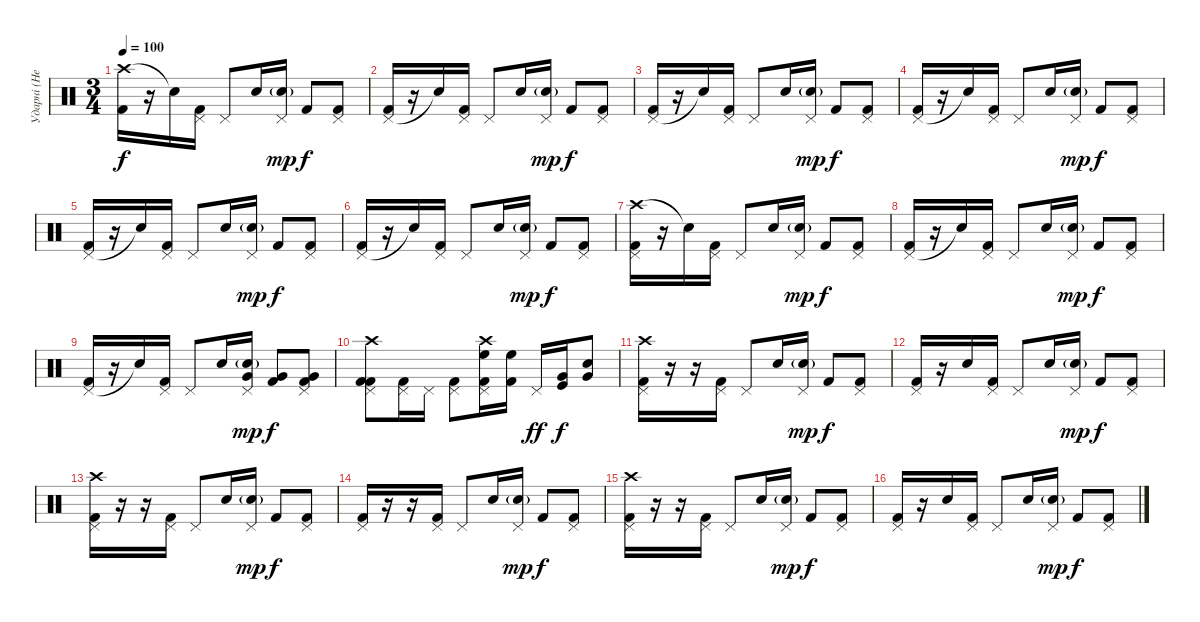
\track ("Ударні (Недашковський)" "Ударні (Не") {instrument percussion}
\staff {score}
\articulation defaults
\ts (3 4)
\tempo 100
\clef neutral
\ks c
("Crash high (hit)" "Kick (hit) 2").16{dy f} r.16 "Snare (hit)"{t}.16 ("Pedal Hi-Hat (hit)" "Kick (hit) 2").16 "Pedal Hi-Hat (hit)".8 "Snare (hit) 2".16 ("Pedal Hi-Hat (hit)" "Electric Snare (hit)"{g}).16{dy mp} "Kick (hit) 2".8{dy f} ("Pedal Hi-Hat (hit)" "Kick (hit) 2").8 |
("Pedal Hi-Hat (hit)" "Kick (hit) 2").16 r.16 "Snare (hit)"{t}.16 ("Pedal Hi-Hat (hit)" "Kick (hit) 2").16 "Pedal Hi-Hat (hit)".8 "Snare (hit) 2".16 ("Pedal Hi-Hat (hit)" "Electric Snare (hit)"{g}).16{dy mp} "Kick (hit) 2".8{dy f} ("Pedal Hi-Hat (hit)" "Kick (hit) 2").8 |
("Pedal Hi-Hat (hit)" "Kick (hit) 2").16 r.16 "Snare (hit)"{t}.16 ("Pedal Hi-Hat (hit)" "Kick (hit) 2").16 "Pedal Hi-Hat (hit)".8 "Snare (hit) 2".16 ("Pedal Hi-Hat (hit)" "Electric Snare (hit)"{g}).16{dy mp} "Kick (hit) 2".8{dy f} ("Pedal Hi-Hat (hit)" "Kick (hit) 2").8 |
("Pedal Hi-Hat (hit)" "Kick (hit) 2").16 r.16 "Snare (hit)"{t}.16 ("Pedal Hi-Hat (hit)" "Kick (hit) 2").16 "Pedal Hi-Hat (hit)".8 "Snare (hit) 2".16 ("Pedal Hi-Hat (hit)" "Electric Snare (hit)"{g}).16{dy mp} "Kick (hit) 2".8{dy f} ("Pedal Hi-Hat (hit)" "Kick (hit) 2").8 |
("Pedal Hi-Hat (hit)" "Kick (hit) 2").16 r.16 "Snare (hit)"{t}.16 ("Pedal Hi-Hat (hit)" "Kick (hit) 2").16 "Pedal Hi-Hat (hit)".8 "Snare (hit) 2".16 ("Pedal Hi-Hat (hit)" "Electric Snare (hit)"{g}).16{dy mp} "Kick (hit) 2".8{dy f} ("Pedal Hi-Hat (hit)" "Kick (hit) 2").8 |
("Pedal Hi-Hat (hit)" "Kick (hit) 2").16 r.16 "Snare (hit)"{t}.16 ("Pedal Hi-Hat (hit)" "Kick (hit) 2").16 "Pedal Hi-Hat (hit)".8 "Snare (hit) 2".16 ("Pedal Hi-Hat (hit)" "Electric Snare (hit)"{g}).16{dy mp} "Kick (hit) 2".8{dy f} ("Pedal Hi-Hat (hit)" "Kick (hit) 2").8 |
("Crash high (hit)" "Pedal Hi-Hat (hit)" "Kick (hit) 2").16 r.16 "Snare (hit)"{t}.16 ("Pedal Hi-Hat (hit)" "Kick (hit) 2").16 "Pedal Hi-Hat (hit)".8 "Snare (hit) 2".16 ("Pedal Hi-Hat (hit)" "Electric Snare (hit)"{g}).16{dy mp} "Kick (hit) 2".8{dy f} ("Pedal Hi-Hat (hit)" "Kick (hit) 2").8 |
("Pedal Hi-Hat (hit)" "Kick (hit) 2").16 r.16 "Snare (hit)"{t}.16 ("Pedal Hi-Hat (hit)" "Kick (hit) 2").16 "Pedal Hi-Hat (hit)".8 "Snare (hit) 2".16 ("Pedal Hi-Hat (hit)" "Electric Snare (hit)"{g}).16{dy mp} "Kick (hit) 2".8{dy f} ("Pedal Hi-Hat (hit)" "Kick (hit) 2").8 |
("Pedal Hi-Hat (hit)" "Kick (hit) 2").16 r.16 "Snare (hit)"{t}.16 ("Pedal Hi-Hat (hit)" "Kick (hit) 2").16 "Pedal Hi-Hat (hit)".8 "Snare (hit) 2".16 ("Pedal Hi-Hat (hit)" "Very Low Tom (hit)" "Electric Snare (hit)"{g}).16{dy mp} ("Very Low Tom (hit)" "Kick (hit) 2").8{dy f} ("Pedal Hi-Hat (hit)" "Very Low Tom (hit)" "Kick (hit) 2").8 |
("Crash high (hit)" "Pedal Hi-Hat (hit)" "Kick (hit) 2" "Kick (hit) 2").8 ("Pedal Hi-Hat (hit)" "Kick (hit) 2").16 "Pedal Hi-Hat (hit)".16 ("Pedal Hi-Hat (hit)" "Kick (hit) 2").8 ("Crash high (hit)" "Pedal Hi-Hat (hit)" "Kick (hit) 2" "High Floor Tom (hit)").16 ("Kick (hit) 2" "High Floor Tom (hit)").16 "Pedal Hi-Hat (hit)".16{dy ff} ("Kick (hit)" "Very Low Tom (hit)").16{dy f} ("Snare (hit) 2" "Very Low Tom (hit)").8 |
("Crash high (hit)" "Pedal Hi-Hat (hit)" "Kick (hit) 2").16 r.16 r.16 ("Pedal Hi-Hat (hit)" "Kick (hit) 2").16 "Pedal Hi-Hat (hit)".8 "Snare (hit) 2".16 ("Pedal Hi-Hat (hit)" "Electric Snare (hit)"{g}).16{dy mp} "Kick (hit) 2".8{dy f} ("Pedal Hi-Hat (hit)" "Kick (hit) 2").8 |
("Pedal Hi-Hat (hit)" "Kick (hit) 2").16 r.16 "Snare (hit) 2".16 ("Pedal Hi-Hat (hit)" "Kick (hit) 2").16 "Pedal Hi-Hat (hit)".8 "Snare (hit) 2".16 ("Pedal Hi-Hat (hit)" "Electric Snare (hit)"{g}).16{dy mp} "Kick (hit) 2".8{dy f} ("Pedal Hi-Hat (hit)" "Kick (hit) 2").8 |
("Crash high (hit)" "Pedal Hi-Hat (hit)" "Kick (hit) 2").16 r.16 r.16 ("Pedal Hi-Hat (hit)" "Kick (hit) 2").16 "Pedal Hi-Hat (hit)".8 "Snare (hit) 2".16 ("Pedal Hi-Hat (hit)" "Electric Snare (hit)"{g}).16{dy mp} "Kick (hit) 2".8{dy f} ("Pedal Hi-Hat (hit)" "Kick (hit) 2").8 |
("Pedal Hi-Hat (hit)" "Kick (hit) 2").16 r.16 r.16 ("Pedal Hi-Hat (hit)" "Kick (hit) 2").16 "Pedal Hi-Hat (hit)".8 "Snare (hit) 2".16 ("Pedal Hi-Hat (hit)" "Electric Snare (hit)"{g}).16{dy mp} "Kick (hit) 2".8{dy f} ("Pedal Hi-Hat (hit)" "Kick (hit) 2").8 |
("Crash high (hit)" "Pedal Hi-Hat (hit)" "Kick (hit) 2").16 r.16 r.16 ("Pedal Hi-Hat (hit)" "Kick (hit) 2").16 "Pedal Hi-Hat (hit)".8 "Snare (hit) 2".16 ("Pedal Hi-Hat (hit)" "Electric Snare (hit)"{g}).16{dy mp} "Kick (hit) 2".8{dy f} ("Pedal Hi-Hat (hit)" "Kick (hit) 2").8 |
("Pedal Hi-Hat (hit)" "Kick (hit) 2").16 r.16 "Snare (hit) 2".16 ("Pedal Hi-Hat (hit)" "Kick (hit) 2").16 "Pedal Hi-Hat (hit)".8 "Snare (hit) 2".16 ("Pedal Hi-Hat (hit)" "Electric Snare (hit)"{g}).16{dy mp} "Kick (hit) 2".8{dy f} ("Pedal Hi-Hat (hit)" "Kick (hit) 2").8
